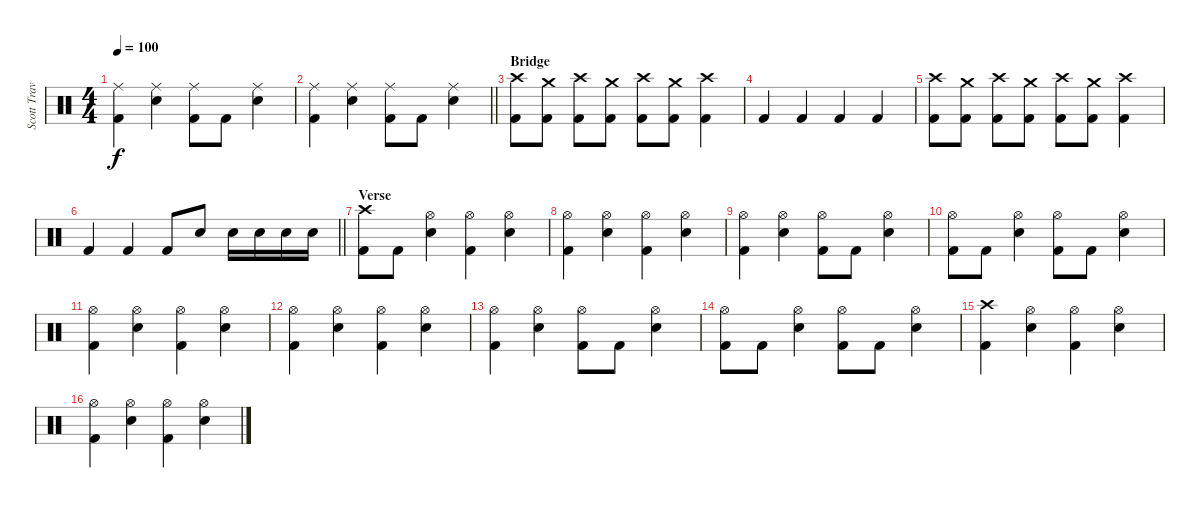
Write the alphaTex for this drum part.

\track ("Scott Travis" "Scott Trav") {instrument percussion}
\staff {score}
\articulation defaults
\ts (4 4)
\tempo 100
\clef neutral
\ks c
("Ride (middle)" "Kick (hit) 2").4{dy f} ("Ride (middle)" "Snare (hit) 2").4 ("Ride (middle)" "Kick (hit) 2").8 "Kick (hit) 2".8 ("Ride (middle)" "Snare (hit) 2").4 |
\barLineRight lightlight
("Ride (middle)" "Kick (hit) 2").4 ("Ride (middle)" "Snare (hit) 2").4 ("Ride (middle)" "Kick (hit) 2").8 "Kick (hit) 2".8 ("Ride (middle)" "Snare (hit) 2").4 |
\section ("" "Bridge")
("Crash high (hit)" "Kick (hit) 2").8 ("Crash medium (hit)" "Kick (hit) 2").8 ("Crash high (hit)" "Kick (hit) 2").8 ("Crash medium (hit)" "Kick (hit) 2").8 ("Crash high (hit)" "Kick (hit) 2").8 ("Crash medium (hit)" "Kick (hit) 2").8 ("Crash high (hit)" "Kick (hit) 2").4 |
"Kick (hit) 2".4 "Kick (hit) 2".4 "Kick (hit) 2".4 "Kick (hit) 2".4 |
("Crash high (hit)" "Kick (hit) 2").8 ("Crash medium (hit)" "Kick (hit) 2").8 ("Crash high (hit)" "Kick (hit) 2").8 ("Crash medium (hit)" "Kick (hit) 2").8 ("Crash high (hit)" "Kick (hit) 2").8 ("Crash medium (hit)" "Kick (hit) 2").8 ("Crash high (hit)" "Kick (hit) 2").4 |
\barLineRight lightlight "Kick (hit) 2".4 "Kick (hit) 2".4 "Kick (hit) 2".8 "Snare (hit) 2".8 "Snare (hit) 2".16 "Snare (hit) 2".16 "Snare (hit) 2".16 "Snare (hit) 2".16
|
\section ("" "Verse")
("Crash high (hit)" "Kick (hit) 2").8 "Kick (hit) 2".8 ("Hi-Hat (open)" "Snare (hit) 2").4 ("Hi-Hat (open)" "Kick (hit) 2").4 ("Hi-Hat (open)" "Snare (hit) 2").4 |
("Hi-Hat (open)" "Kick (hit) 2").4 ("Hi-Hat (open)" "Snare (hit) 2").4 ("Hi-Hat (open)" "Kick (hit) 2").4 ("Hi-Hat (open)" "Snare (hit) 2").4 |
("Hi-Hat (open)" "Kick (hit) 2").4 ("Hi-Hat (open)" "Snare (hit) 2").4 ("Hi-Hat (open)" "Kick (hit) 2").8 "Kick (hit) 2".8 ("Hi-Hat (open)" "Snare (hit) 2").4 |
("Hi-Hat (open)" "Kick (hit) 2").8 "Kick (hit) 2".8 ("Hi-Hat (open)" "Snare (hit) 2").4 ("Hi-Hat (open)" "Kick (hit) 2").8 "Kick (hit) 2".8 ("Hi-Hat (open)" "Snare (hit) 2").4 |
("Hi-Hat (open)" "Kick (hit) 2").4 ("Hi-Hat (open)" "Snare (hit) 2").4 ("Hi-Hat (open)" "Kick (hit) 2").4 ("Hi-Hat (open)" "Snare (hit) 2").4 |
("Hi-Hat (open)" "Kick (hit) 2").4 ("Hi-Hat (open)" "Snare (hit) 2").4 ("Hi-Hat (open)" "Kick (hit) 2").4 ("Hi-Hat (open)" "Snare (hit) 2").4 |
("Hi-Hat (open)" "Kick (hit) 2").4 ("Hi-Hat (open)" "Snare (hit) 2").4 ("Hi-Hat (open)" "Kick (hit) 2").8 "Kick (hit) 2".8 ("Hi-Hat (open)" "Snare (hit) 2").4 |
("Hi-Hat (open)" "Kick (hit) 2").8 "Kick (hit) 2".8 ("Hi-Hat (open)" "Snare (hit) 2").4 ("Hi-Hat (open)" "Kick (hit) 2").8 "Kick (hit) 2".8 ("Hi-Hat (open)" "Snare (hit) 2").4 |
("Crash high (hit)" "Kick (hit) 2").4 ("Hi-Hat (open)" "Snare (hit) 2").4 ("Hi-Hat (open)" "Kick (hit) 2").4 ("Hi-Hat (open)" "Snare (hit) 2").4 |
("Hi-Hat (open)" "Kick (hit) 2").4 ("Hi-Hat (open)" "Snare (hit) 2").4 ("Hi-Hat (open)" "Kick (hit) 2").4 ("Hi-Hat (open)" "Snare (hit) 2").4
